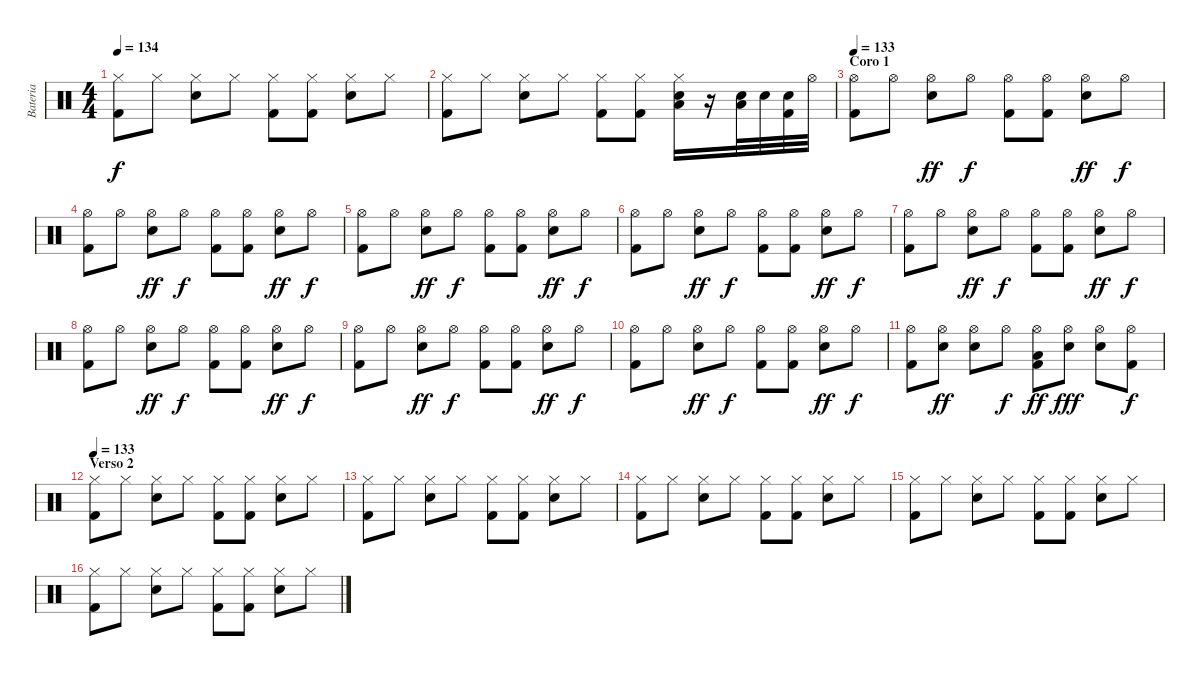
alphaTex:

\track ("Bateria" "Bateria") {instrument percussion}
\staff {score}
\articulation defaults
\ts (4 4)
\tempo 134
\clef neutral
\ks c
("Hi-Hat (closed)" "Kick (hit) 2").8{dy f} "Hi-Hat (closed)".8 ("Hi-Hat (closed)" "Snare (hit) 2").8 "Hi-Hat (closed)".8 ("Hi-Hat (closed)" "Kick (hit) 2").8 ("Hi-Hat (closed)" "Kick (hit) 2").8 ("Hi-Hat (closed)" "Snare (hit) 2").8 "Hi-Hat (closed)".8 |
("Hi-Hat (closed)" "Kick (hit) 2").8 "Hi-Hat (closed)".8 ("Hi-Hat (closed)" "Snare (hit) 2").8 "Hi-Hat (closed)".8 ("Hi-Hat (closed)" "Kick (hit) 2").8 ("Hi-Hat (closed)" "Kick (hit) 2").8 ("Hi-Hat (closed)" "Snare (hit) 2" "Low Tom (hit)").16 r.16 ("Snare (hit) 2" "Low Tom (hit)").32 "Snare (hit) 2".32 ("Snare (hit) 2" "Kick (hit) 2").32 "Hi-Hat (open)".32 |
\section ("" "Coro 1")
\tempo 133
("Hi-Hat (open)" "Kick (hit) 2").8 "Hi-Hat (open)".8 ("Hi-Hat (open)" "Snare (hit) 2").8{dy ff} "Hi-Hat (open)".8{dy f} ("Hi-Hat (open)" "Kick (hit) 2").8 ("Hi-Hat (open)" "Kick (hit) 2").8 ("Hi-Hat (open)" "Snare (hit) 2").8{dy ff} "Hi-Hat (open)".8{dy f} |
("Hi-Hat (open)" "Kick (hit) 2").8 "Hi-Hat (open)".8 ("Hi-Hat (open)" "Snare (hit) 2").8{dy ff} "Hi-Hat (open)".8{dy f} ("Hi-Hat (open)" "Kick (hit) 2").8 ("Hi-Hat (open)" "Kick (hit) 2").8 ("Hi-Hat (open)" "Snare (hit) 2").8{dy ff} "Hi-Hat (open)".8{dy f} |
("Hi-Hat (open)" "Kick (hit) 2").8 "Hi-Hat (open)".8 ("Hi-Hat (open)" "Snare (hit) 2").8{dy ff} "Hi-Hat (open)".8{dy f} ("Hi-Hat (open)" "Kick (hit) 2").8 ("Hi-Hat (open)" "Kick (hit) 2").8 ("Hi-Hat (open)" "Snare (hit) 2").8{dy ff} "Hi-Hat (open)".8{dy f} |
("Hi-Hat (open)" "Kick (hit) 2").8 "Hi-Hat (open)".8 ("Hi-Hat (open)" "Snare (hit) 2").8{dy ff} "Hi-Hat (open)".8{dy f} ("Hi-Hat (open)" "Kick (hit) 2").8 ("Hi-Hat (open)" "Kick (hit) 2").8 ("Hi-Hat (open)" "Snare (hit) 2").8{dy ff} "Hi-Hat (open)".8{dy f} |
("Hi-Hat (open)" "Kick (hit) 2").8 "Hi-Hat (open)".8 ("Hi-Hat (open)" "Snare (hit) 2").8{dy ff} "Hi-Hat (open)".8{dy f} ("Hi-Hat (open)" "Kick (hit) 2").8 ("Hi-Hat (open)" "Kick (hit) 2").8 ("Hi-Hat (open)" "Snare (hit) 2").8{dy ff} "Hi-Hat (open)".8{dy f} |
("Hi-Hat (open)" "Kick (hit) 2").8 "Hi-Hat (open)".8 ("Hi-Hat (open)" "Snare (hit) 2").8{dy ff} "Hi-Hat (open)".8{dy f} ("Hi-Hat (open)" "Kick (hit) 2").8 ("Hi-Hat (open)" "Kick (hit) 2").8 ("Hi-Hat (open)" "Snare (hit) 2").8{dy ff} "Hi-Hat (open)".8{dy f} |
("Hi-Hat (open)" "Kick (hit) 2").8 "Hi-Hat (open)".8 ("Hi-Hat (open)" "Snare (hit) 2").8{dy ff} "Hi-Hat (open)".8{dy f} ("Hi-Hat (open)" "Kick (hit) 2").8 ("Hi-Hat (open)" "Kick (hit) 2").8 ("Hi-Hat (open)" "Snare (hit) 2").8{dy ff} "Hi-Hat (open)".8{dy f} |
("Hi-Hat (open)" "Kick (hit) 2").8 "Hi-Hat (open)".8 ("Hi-Hat (open)" "Snare (hit) 2").8{dy ff} "Hi-Hat (open)".8{dy f} ("Hi-Hat (open)" "Kick (hit) 2").8 ("Hi-Hat (open)" "Kick (hit) 2").8 ("Hi-Hat (open)" "Snare (hit) 2").8{dy ff} "Hi-Hat (open)".8{dy f} |
("Hi-Hat (open)" "Kick (hit) 2").8 ("Hi-Hat (open)" "Snare (hit) 2").8{dy ff} ("Hi-Hat (open)" "Snare (hit) 2").8 "Hi-Hat (open)".8{dy f} ("Hi-Hat (open)" "Low Tom (hit)" "Kick (hit) 2").8{dy ff} ("Hi-Hat (open)" "Snare (hit) 2").8{dy fff} ("Hi-Hat (open)" "Snare (hit) 2").8 ("Hi-Hat (open)" "Kick (hit) 2").8{dy f} |
\section ("" "Verso 2")
\tempo 133
("Hi-Hat (closed)" "Kick (hit) 2").8 "Hi-Hat (closed)".8 ("Hi-Hat (closed)" "Snare (hit) 2").8 "Hi-Hat (closed)".8 ("Hi-Hat (closed)" "Kick (hit) 2").8 ("Hi-Hat (closed)" "Kick (hit) 2").8 ("Hi-Hat (closed)" "Snare (hit) 2").8 "Hi-Hat (closed)".8 |
("Hi-Hat (closed)" "Kick (hit) 2").8 "Hi-Hat (closed)".8 ("Hi-Hat (closed)" "Snare (hit) 2").8 "Hi-Hat (closed)".8 ("Hi-Hat (closed)" "Kick (hit) 2").8 ("Hi-Hat (closed)" "Kick (hit) 2").8 ("Hi-Hat (closed)" "Snare (hit) 2").8 "Hi-Hat (closed)".8 |
("Hi-Hat (closed)" "Kick (hit) 2").8 "Hi-Hat (closed)".8 ("Hi-Hat (closed)" "Snare (hit) 2").8 "Hi-Hat (closed)".8 ("Hi-Hat (closed)" "Kick (hit) 2").8 ("Hi-Hat (closed)" "Kick (hit) 2").8 ("Hi-Hat (closed)" "Snare (hit) 2").8 "Hi-Hat (closed)".8 |
("Hi-Hat (closed)" "Kick (hit) 2").8 "Hi-Hat (closed)".8 ("Hi-Hat (closed)" "Snare (hit) 2").8 "Hi-Hat (closed)".8 ("Hi-Hat (closed)" "Kick (hit) 2").8 ("Hi-Hat (closed)" "Kick (hit) 2").8 ("Hi-Hat (closed)" "Snare (hit) 2").8 "Hi-Hat (closed)".8 |
("Hi-Hat (closed)" "Kick (hit) 2").8 "Hi-Hat (closed)".8 ("Hi-Hat (closed)" "Snare (hit) 2").8 "Hi-Hat (closed)".8 ("Hi-Hat (closed)" "Kick (hit) 2").8 ("Hi-Hat (closed)" "Kick (hit) 2").8 ("Hi-Hat (closed)" "Snare (hit) 2").8 "Hi-Hat (closed)".8
